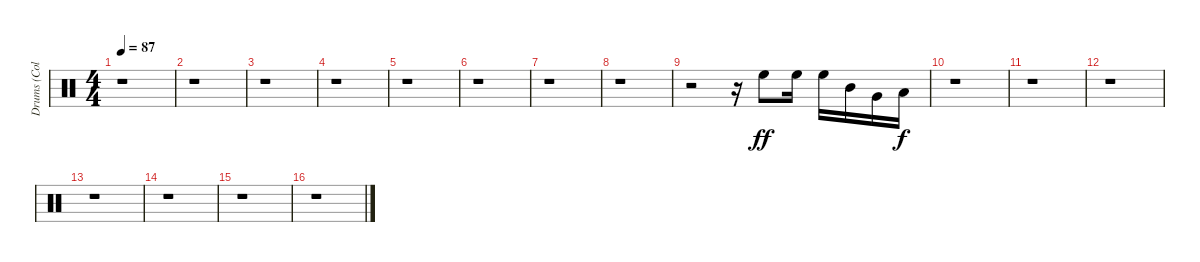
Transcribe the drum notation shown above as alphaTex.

\track ("Drums (Collins)" "Drums (Col") {instrument percussion}
\staff {score}
\articulation defaults
\ts (4 4)
\tempo 87
\clef neutral
\ks c
r.1{dy f} |
r.1 |
r.1 |
r.1 |
r.1 |
r.1 |
r.1 |
r.1 |
r.2 r.16 "High Floor Tom (hit)".8{dy ff} "High Floor Tom (hit)".16 "High Floor Tom (hit)".16 "Mid Tom (hit)".16 "Very Low Tom (hit)".16 "Low Floor Tom (hit)".16{dy f} |
r.1 |
r.1 |
r.1 |
r.1 |
r.1 |
r.1 |
r.1
